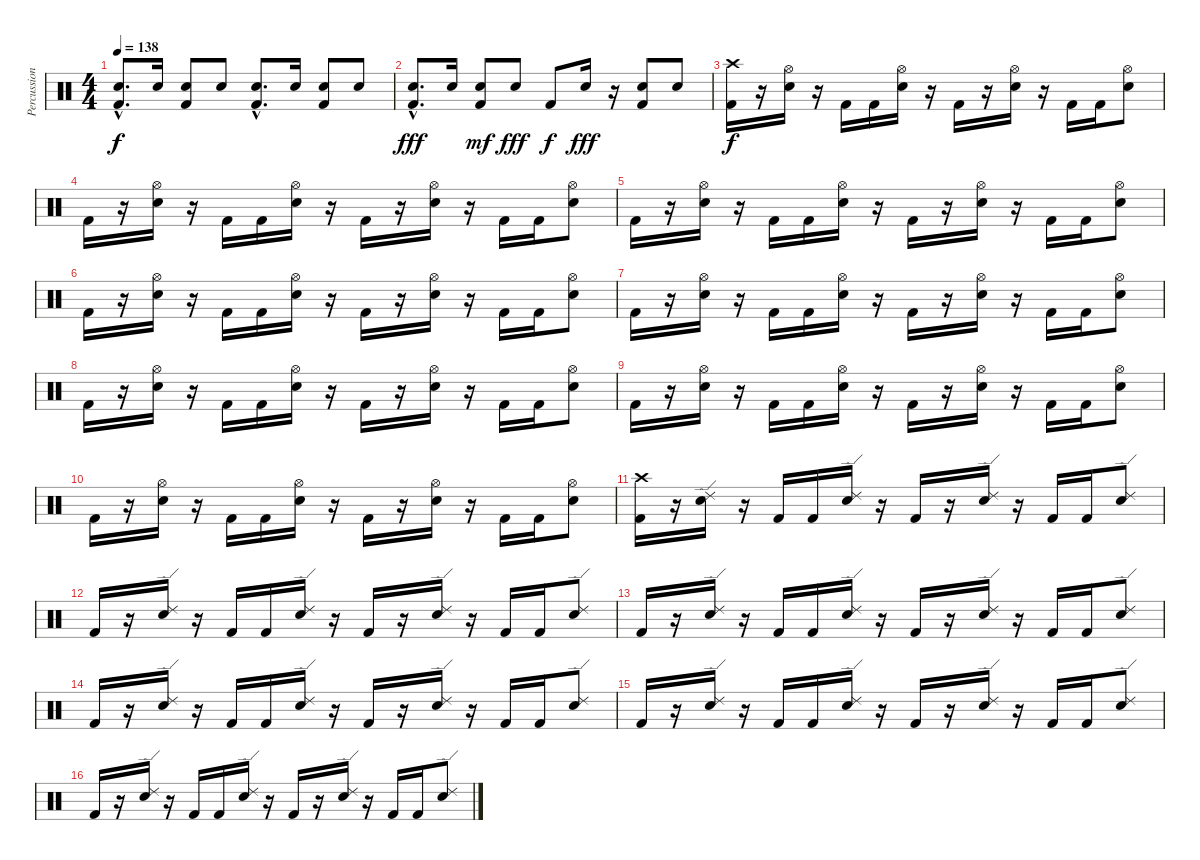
\track ("Percussion" "Percussion") {instrument percussion}
\staff {score}
\articulation defaults
\ts (4 4)
\tempo 138
\clef neutral
\ks c
("Electric Snare (hit)"{hac} "Kick (hit) 2"{hac}).8{d dy f} "Electric Snare (hit)".16 ("Electric Snare (hit)" "Kick (hit) 2").8 "Electric Snare (hit)".8 ("Electric Snare (hit)"{hac} "Kick (hit) 2"{hac}).8{d} "Electric Snare (hit)".16 ("Electric Snare (hit)" "Kick (hit) 2").8 "Electric Snare (hit)".8 |
("Electric Snare (hit)"{hac} "Kick (hit) 2"{hac}).8{d dy fff} "Electric Snare (hit)".16 ("Electric Snare (hit)" "Kick (hit) 2").8{dy mf} "Electric Snare (hit)".8{dy fff} "Kick (hit) 2".8{dy f} "Electric Snare (hit)".16{dy fff} r.16 ("Electric Snare (hit)" "Kick (hit) 2").8 "Electric Snare (hit)".8 |
("Crash high (hit)" "Kick (hit) 2").16{dy f} r.16 ("Hi-Hat (open)" "Electric Snare (hit)").16 r.16 "Kick (hit) 2".16 "Kick (hit) 2".16 ("Hi-Hat (open)" "Electric Snare (hit)").16 r.16 "Kick (hit) 2".16 r.16 ("Hi-Hat (open)" "Electric Snare (hit)").16 r.16 "Kick (hit) 2".16 "Kick (hit) 2".16 ("Hi-Hat (open)" "Electric Snare (hit)").8 |
"Kick (hit) 2".16 r.16 ("Hi-Hat (open)" "Electric Snare (hit)").16 r.16 "Kick (hit) 2".16 "Kick (hit) 2".16 ("Hi-Hat (open)" "Electric Snare (hit)").16 r.16 "Kick (hit) 2".16 r.16 ("Hi-Hat (open)" "Electric Snare (hit)").16 r.16 "Kick (hit) 2".16 "Kick (hit) 2".16 ("Hi-Hat (open)" "Electric Snare (hit)").8 |
"Kick (hit) 2".16 r.16 ("Hi-Hat (open)" "Electric Snare (hit)").16 r.16 "Kick (hit) 2".16 "Kick (hit) 2".16 ("Hi-Hat (open)" "Electric Snare (hit)").16 r.16 "Kick (hit) 2".16 r.16 ("Hi-Hat (open)" "Electric Snare (hit)").16 r.16 "Kick (hit) 2".16 "Kick (hit) 2".16 ("Hi-Hat (open)" "Electric Snare (hit)").8 |
"Kick (hit) 2".16 r.16 ("Hi-Hat (open)" "Electric Snare (hit)").16 r.16 "Kick (hit) 2".16 "Kick (hit) 2".16 ("Hi-Hat (open)" "Electric Snare (hit)").16 r.16 "Kick (hit) 2".16 r.16 ("Hi-Hat (open)" "Electric Snare (hit)").16 r.16 "Kick (hit) 2".16 "Kick (hit) 2".16 ("Hi-Hat (open)" "Electric Snare (hit)").8 |
"Kick (hit) 2".16 r.16 ("Hi-Hat (open)" "Electric Snare (hit)").16 r.16 "Kick (hit) 2".16 "Kick (hit) 2".16 ("Hi-Hat (open)" "Electric Snare (hit)").16 r.16 "Kick (hit) 2".16 r.16 ("Hi-Hat (open)" "Electric Snare (hit)").16 r.16 "Kick (hit) 2".16 "Kick (hit) 2".16 ("Hi-Hat (open)" "Electric Snare (hit)").8 |
"Kick (hit) 2".16 r.16 ("Hi-Hat (open)" "Electric Snare (hit)").16 r.16 "Kick (hit) 2".16 "Kick (hit) 2".16 ("Hi-Hat (open)" "Electric Snare (hit)").16 r.16 "Kick (hit) 2".16 r.16 ("Hi-Hat (open)" "Electric Snare (hit)").16 r.16 "Kick (hit) 2".16 "Kick (hit) 2".16 ("Hi-Hat (open)" "Electric Snare (hit)").8 |
"Kick (hit) 2".16 r.16 ("Hi-Hat (open)" "Electric Snare (hit)").16 r.16 "Kick (hit) 2".16 "Kick (hit) 2".16 ("Hi-Hat (open)" "Electric Snare (hit)").16 r.16 "Kick (hit) 2".16 r.16 ("Hi-Hat (open)" "Electric Snare (hit)").16 r.16 "Kick (hit) 2".16 "Kick (hit) 2".16 ("Hi-Hat (open)" "Electric Snare (hit)").8 |
"Kick (hit) 2".16 r.16 ("Hi-Hat (open)" "Electric Snare (hit)").16 r.16 "Kick (hit) 2".16 "Kick (hit) 2".16 ("Hi-Hat (open)" "Electric Snare (hit)").16 r.16 "Kick (hit) 2".16 r.16 ("Hi-Hat (open)" "Electric Snare (hit)").16 r.16 "Kick (hit) 2".16 "Kick (hit) 2".16 ("Hi-Hat (open)" "Electric Snare (hit)").8 |
("Crash high (hit)" "Kick (hit) 2").16 r.16 ("Ride (edge) 2" "Electric Snare (hit)").16 r.16 "Kick (hit) 2".16 "Kick (hit) 2".16 ("Ride (edge) 2" "Electric Snare (hit)").16 r.16 "Kick (hit) 2".16 r.16 ("Ride (edge) 2" "Electric Snare (hit)").16 r.16 "Kick (hit) 2".16 "Kick (hit) 2".16 ("Ride (edge) 2" "Electric Snare (hit)").8 |
"Kick (hit) 2".16 r.16 ("Ride (edge) 2" "Electric Snare (hit)").16 r.16 "Kick (hit) 2".16 "Kick (hit) 2".16 ("Ride (edge) 2" "Electric Snare (hit)").16 r.16 "Kick (hit) 2".16 r.16 ("Ride (edge) 2" "Electric Snare (hit)").16 r.16 "Kick (hit) 2".16 "Kick (hit) 2".16 ("Ride (edge) 2" "Electric Snare (hit)").8 |
"Kick (hit) 2".16 r.16 ("Ride (edge) 2" "Electric Snare (hit)").16 r.16 "Kick (hit) 2".16 "Kick (hit) 2".16 ("Ride (edge) 2" "Electric Snare (hit)").16 r.16 "Kick (hit) 2".16 r.16 ("Ride (edge) 2" "Electric Snare (hit)").16 r.16 "Kick (hit) 2".16 "Kick (hit) 2".16 ("Ride (edge) 2" "Electric Snare (hit)").8 |
"Kick (hit) 2".16 r.16 ("Ride (edge) 2" "Electric Snare (hit)").16 r.16 "Kick (hit) 2".16 "Kick (hit) 2".16 ("Ride (edge) 2" "Electric Snare (hit)").16 r.16 "Kick (hit) 2".16 r.16 ("Ride (edge) 2" "Electric Snare (hit)").16 r.16 "Kick (hit) 2".16 "Kick (hit) 2".16 ("Ride (edge) 2" "Electric Snare (hit)").8 |
"Kick (hit) 2".16 r.16 ("Ride (edge) 2" "Electric Snare (hit)").16 r.16 "Kick (hit) 2".16 "Kick (hit) 2".16 ("Ride (edge) 2" "Electric Snare (hit)").16 r.16 "Kick (hit) 2".16 r.16 ("Ride (edge) 2" "Electric Snare (hit)").16 r.16 "Kick (hit) 2".16 "Kick (hit) 2".16 ("Ride (edge) 2" "Electric Snare (hit)").8 |
"Kick (hit) 2".16 r.16 ("Ride (edge) 2" "Electric Snare (hit)").16 r.16 "Kick (hit) 2".16 "Kick (hit) 2".16 ("Ride (edge) 2" "Electric Snare (hit)").16 r.16 "Kick (hit) 2".16 r.16 ("Ride (edge) 2" "Electric Snare (hit)").16 r.16 "Kick (hit) 2".16 "Kick (hit) 2".16 ("Ride (edge) 2" "Electric Snare (hit)").8
